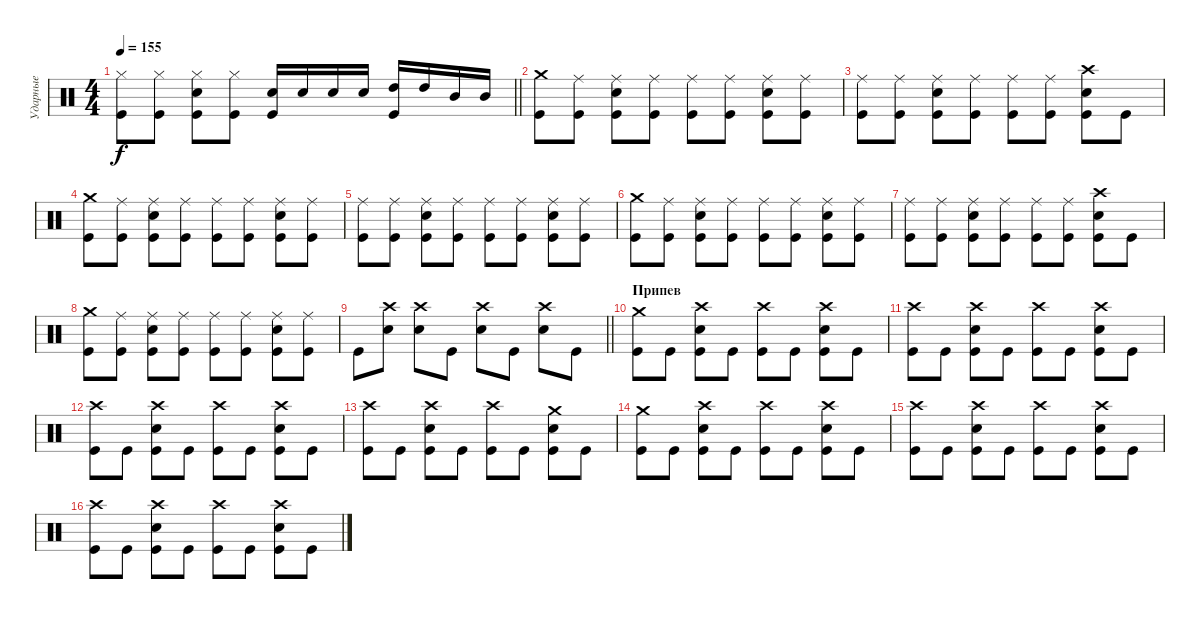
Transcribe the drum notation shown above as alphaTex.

\track ("Ударные" "Ударные") {instrument percussion}
\staff {score}
\articulation defaults
\ts (4 4)
\tempo 155
\clef neutral
\barLineRight lightlight
\ks c
("Hi-Hat (closed)" "Kick (hit)").8{dy f} ("Hi-Hat (closed)" "Kick (hit)").8 ("Hi-Hat (closed)" "Electric Snare (hit)" "Kick (hit)").8 ("Hi-Hat (closed)" "Kick (hit)").8 ("Electric Snare (hit)" "Kick (hit)").16 "Electric Snare (hit)".16 "Electric Snare (hit)".16 "Electric Snare (hit)".16 ("High Tom (hit)" "Kick (hit)").16 "High Tom (hit)".16 "Mid Tom (hit)".16 "Mid Tom (hit)".16 |
\section ("" " ")
("Crash medium (hit)" "Kick (hit)").8 ("Ride (middle)" "Kick (hit)").8 ("Ride (middle)" "Electric Snare (hit)" "Kick (hit)").8 ("Ride (middle)" "Kick (hit)").8 ("Ride (middle)" "Kick (hit)").8 ("Ride (middle)" "Kick (hit)").8 ("Ride (middle)" "Electric Snare (hit)" "Kick (hit)").8 ("Ride (middle)" "Kick (hit)").8 |
("Ride (middle)" "Kick (hit)").8 ("Ride (middle)" "Kick (hit)").8 ("Ride (middle)" "Electric Snare (hit)" "Kick (hit)").8 ("Ride (middle)" "Kick (hit)").8 ("Ride (middle)" "Kick (hit)").8 ("Ride (middle)" "Kick (hit)").8 ("Crash high (hit)" "Electric Snare (hit)" "Kick (hit)").8 "Kick (hit)".8 |
("Crash medium (hit)" "Kick (hit)").8 ("Ride (middle)" "Kick (hit)").8 ("Ride (middle)" "Electric Snare (hit)" "Kick (hit)").8 ("Ride (middle)" "Kick (hit)").8 ("Ride (middle)" "Kick (hit)").8 ("Ride (middle)" "Kick (hit)").8 ("Ride (middle)" "Electric Snare (hit)" "Kick (hit)").8 ("Ride (middle)" "Kick (hit)").8 |
("Ride (middle)" "Kick (hit)").8 ("Ride (middle)" "Kick (hit)").8 ("Ride (middle)" "Electric Snare (hit)" "Kick (hit)").8 ("Ride (middle)" "Kick (hit)").8 ("Ride (middle)" "Kick (hit)").8 ("Ride (middle)" "Kick (hit)").8 ("Ride (middle)" "Electric Snare (hit)" "Kick (hit)").8 ("Ride (middle)" "Kick (hit)").8 |
("Crash medium (hit)" "Kick (hit)").8 ("Ride (middle)" "Kick (hit)").8 ("Ride (middle)" "Electric Snare (hit)" "Kick (hit)").8 ("Ride (middle)" "Kick (hit)").8 ("Ride (middle)" "Kick (hit)").8 ("Ride (middle)" "Kick (hit)").8 ("Ride (middle)" "Electric Snare (hit)" "Kick (hit)").8 ("Ride (middle)" "Kick (hit)").8 |
("Ride (middle)" "Kick (hit)").8 ("Ride (middle)" "Kick (hit)").8 ("Ride (middle)" "Electric Snare (hit)" "Kick (hit)").8 ("Ride (middle)" "Kick (hit)").8 ("Ride (middle)" "Kick (hit)").8 ("Ride (middle)" "Kick (hit)").8 ("Crash high (hit)" "Electric Snare (hit)" "Kick (hit)").8 "Kick (hit)".8 |
("Crash medium (hit)" "Kick (hit)").8 ("Ride (middle)" "Kick (hit)").8 ("Ride (middle)" "Electric Snare (hit)" "Kick (hit)").8 ("Ride (middle)" "Kick (hit)").8 ("Ride (middle)" "Kick (hit)").8 ("Ride (middle)" "Kick (hit)").8 ("Ride (middle)" "Electric Snare (hit)" "Kick (hit)").8 ("Ride (middle)" "Kick (hit)").8 |
\barLineRight lightlight "Kick (hit)".8
("Crash high (hit)" "Electric Snare (hit)").8 ("Crash high (hit)" "Electric Snare (hit)").8 "Kick (hit)".8 ("Crash high (hit)" "Electric Snare (hit)").8 "Kick (hit)".8 ("Crash high (hit)" "Electric Snare (hit)").8 "Kick (hit)".8 |
\section ("" "Припев")
("Crash medium (hit)" "Kick (hit)").8 "Kick (hit)".8 ("Crash high (hit)" "Electric Snare (hit)" "Kick (hit)").8 "Kick (hit)".8 ("Crash high (hit)" "Kick (hit)").8 "Kick (hit)".8 ("Crash high (hit)" "Electric Snare (hit)" "Kick (hit)").8 "Kick (hit)".8 |
("Crash high (hit)" "Kick (hit)").8 "Kick (hit)".8 ("Crash high (hit)" "Electric Snare (hit)" "Kick (hit)").8 "Kick (hit)".8 ("Crash high (hit)" "Kick (hit)").8 "Kick (hit)".8 ("Crash high (hit)" "Electric Snare (hit)" "Kick (hit)").8 "Kick (hit)".8 |
("Crash high (hit)" "Kick (hit)").8 "Kick (hit)".8 ("Crash high (hit)" "Electric Snare (hit)" "Kick (hit)").8 "Kick (hit)".8 ("Crash high (hit)" "Kick (hit)").8 "Kick (hit)".8 ("Crash high (hit)" "Electric Snare (hit)" "Kick (hit)").8 "Kick (hit)".8 |
("Crash high (hit)" "Kick (hit)").8 "Kick (hit)".8 ("Crash high (hit)" "Electric Snare (hit)" "Kick (hit)").8 "Kick (hit)".8 ("Crash high (hit)" "Kick (hit)").8 "Kick (hit)".8 ("Crash medium (hit)" "Electric Snare (hit)" "Kick (hit)").8 "Kick (hit)".8 |
("Crash medium (hit)" "Kick (hit)").8 "Kick (hit)".8 ("Crash high (hit)" "Electric Snare (hit)" "Kick (hit)").8 "Kick (hit)".8 ("Crash high (hit)" "Kick (hit)").8 "Kick (hit)".8 ("Crash high (hit)" "Electric Snare (hit)" "Kick (hit)").8 "Kick (hit)".8 |
("Crash high (hit)" "Kick (hit)").8 "Kick (hit)".8 ("Crash high (hit)" "Electric Snare (hit)" "Kick (hit)").8 "Kick (hit)".8 ("Crash high (hit)" "Kick (hit)").8 "Kick (hit)".8 ("Crash high (hit)" "Electric Snare (hit)" "Kick (hit)").8 "Kick (hit)".8 |
("Crash high (hit)" "Kick (hit)").8 "Kick (hit)".8 ("Crash high (hit)" "Electric Snare (hit)" "Kick (hit)").8 "Kick (hit)".8 ("Crash high (hit)" "Kick (hit)").8 "Kick (hit)".8 ("Crash high (hit)" "Electric Snare (hit)" "Kick (hit)").8 "Kick (hit)".8
